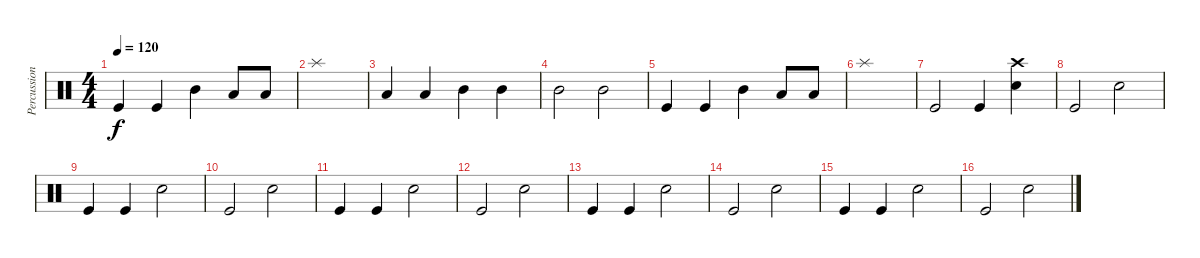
\track ("Percussion" "Percussion") {instrument percussion}
\staff {score}
\articulation defaults
\ts (4 4)
\tempo 120
\clef neutral
\ks c "Kick (hit)".4{dy f} "Kick (hit)".4 "Mid Tom (hit)".4 "Low Tom (hit)".8 "Low Tom (hit)".8
|
"Splash (hit)".1 |
"Low Tom (hit)".4 "Low Tom (hit)".4 "Mid Tom (hit)".4 "Mid Tom (hit)".4 |
"Mid Tom (hit)".2 "Mid Tom (hit)".2 |
"Kick (hit)".4 "Kick (hit)".4 "Mid Tom (hit)".4 "Low Tom (hit)".8 "Low Tom (hit)".8 |
"Splash (hit)".1 |
"Kick (hit)".2 "Kick (hit)".4 ("Snare (hit) 2" "Crash high (hit)").4 |
"Kick (hit)".2 "Snare (hit) 2".2 |
"Kick (hit)".4 "Kick (hit)".4 "Snare (hit) 2".2 |
"Kick (hit)".2 "Snare (hit) 2".2 |
"Kick (hit)".4 "Kick (hit)".4 "Snare (hit) 2".2 |
"Kick (hit)".2 "Snare (hit) 2".2 |
"Kick (hit)".4 "Kick (hit)".4 "Snare (hit) 2".2 |
"Kick (hit)".2 "Snare (hit) 2".2 |
"Kick (hit)".4 "Kick (hit)".4 "Snare (hit) 2".2 |
"Kick (hit)".2 "Snare (hit) 2".2
